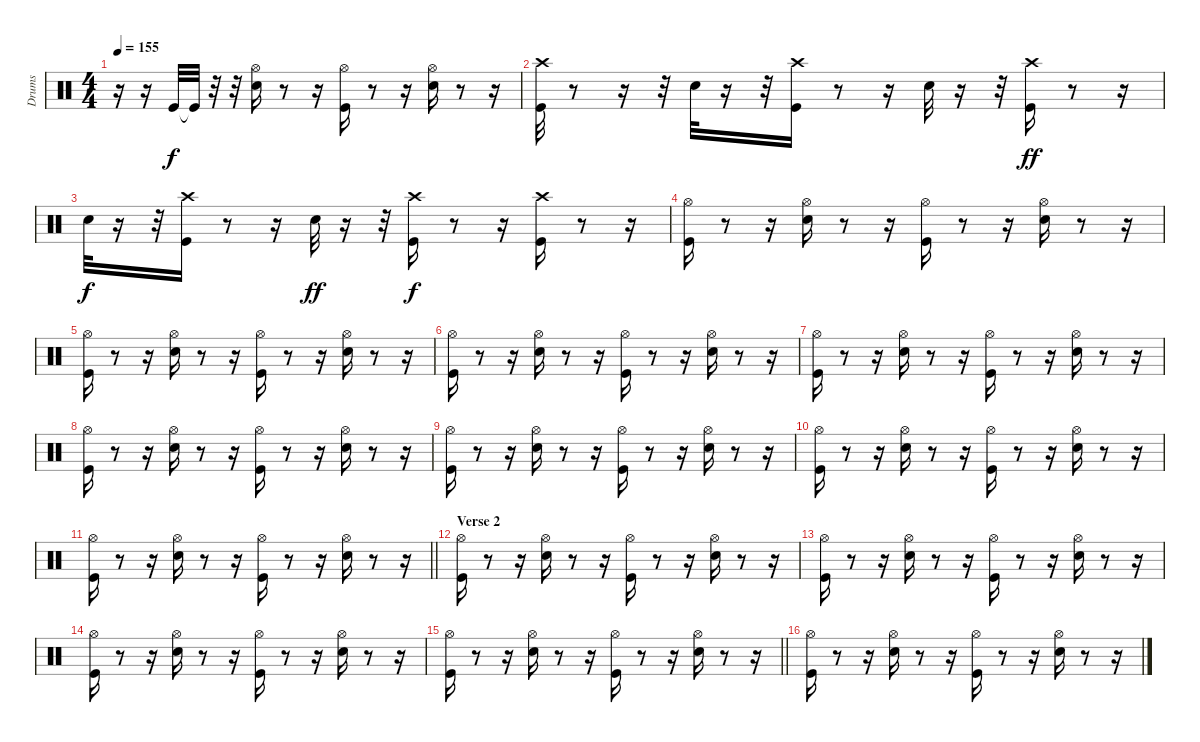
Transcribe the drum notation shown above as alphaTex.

\track ("Drums" "Drums") {instrument percussion}
\staff {score}
\articulation defaults
\ts (4 4)
\tempo 155
\clef neutral
\ks c
r.16{dy f} r.16 "Kick (hit)".32 "Kick (hit)"{t}.32 r.32 r.32 ("Hi-Hat (open)" "Snare (hit) 2").16 r.8 r.16 ("Hi-Hat (open)" "Kick (hit)").16 r.8 r.16 ("Hi-Hat (open)" "Snare (hit) 2").16 r.8 r.16 |
("Kick (hit)" "Crash high (hit)").32 r.8 r.16 r.32 "Snare (hit) 2".32 r.16 r.32 ("Kick (hit)" "Crash high (hit)").16 r.8 r.16 "Snare (hit) 2".32 r.16 r.32 ("Kick (hit)" "Crash high (hit)").16{dy ff} r.8 r.16 |
"Snare (hit) 2".32{dy f} r.16 r.32 ("Kick (hit)" "Crash high (hit)").16 r.8 r.16 "Snare (hit) 2".32{dy ff} r.16 r.32 ("Kick (hit)" "Crash high (hit)").16{dy f} r.8 r.16 ("Kick (hit)" "Crash high (hit)").16 r.8 r.16 |
("Hi-Hat (open)" "Kick (hit)").16 r.8 r.16 ("Hi-Hat (open)" "Snare (hit) 2").16 r.8 r.16 ("Kick (hit)" "Hi-Hat (open)").16 r.8 r.16 ("Snare (hit) 2" "Hi-Hat (open)").16 r.8 r.16 |
("Hi-Hat (open)" "Kick (hit)").16 r.8 r.16 ("Hi-Hat (open)" "Snare (hit) 2").16 r.8 r.16 ("Kick (hit)" "Hi-Hat (open)").16 r.8 r.16 ("Snare (hit) 2" "Hi-Hat (open)").16 r.8 r.16 |
("Hi-Hat (open)" "Kick (hit)").16 r.8 r.16 ("Hi-Hat (open)" "Snare (hit) 2").16 r.8 r.16 ("Kick (hit)" "Hi-Hat (open)").16 r.8 r.16 ("Snare (hit) 2" "Hi-Hat (open)").16 r.8 r.16 |
("Hi-Hat (open)" "Kick (hit)").16 r.8 r.16 ("Hi-Hat (open)" "Snare (hit) 2").16 r.8 r.16 ("Kick (hit)" "Hi-Hat (open)").16 r.8 r.16 ("Snare (hit) 2" "Hi-Hat (open)").16 r.8 r.16 |
("Hi-Hat (open)" "Kick (hit)").16 r.8 r.16 ("Hi-Hat (open)" "Snare (hit) 2").16 r.8 r.16 ("Kick (hit)" "Hi-Hat (open)").16 r.8 r.16 ("Snare (hit) 2" "Hi-Hat (open)").16 r.8 r.16 |
("Hi-Hat (open)" "Kick (hit)").16 r.8 r.16 ("Hi-Hat (open)" "Snare (hit) 2").16 r.8 r.16 ("Kick (hit)" "Hi-Hat (open)").16 r.8 r.16 ("Snare (hit) 2" "Hi-Hat (open)").16 r.8 r.16 |
("Hi-Hat (open)" "Kick (hit)").16 r.8 r.16 ("Hi-Hat (open)" "Snare (hit) 2").16 r.8 r.16 ("Kick (hit)" "Hi-Hat (open)").16 r.8 r.16 ("Snare (hit) 2" "Hi-Hat (open)").16 r.8 r.16 |
\barLineRight lightlight
("Hi-Hat (open)" "Kick (hit)").16 r.8 r.16 ("Hi-Hat (open)" "Snare (hit) 2").16 r.8 r.16 ("Kick (hit)" "Hi-Hat (open)").16 r.8 r.16 ("Snare (hit) 2" "Hi-Hat (open)").16 r.8 r.16 |
\section ("" "Verse 2")
("Hi-Hat (open)" "Kick (hit)").16 r.8 r.16 ("Hi-Hat (open)" "Snare (hit) 2").16 r.8 r.16 ("Kick (hit)" "Hi-Hat (open)").16 r.8 r.16 ("Snare (hit) 2" "Hi-Hat (open)").16 r.8 r.16 |
("Hi-Hat (open)" "Kick (hit)").16 r.8 r.16 ("Hi-Hat (open)" "Snare (hit) 2").16 r.8 r.16 ("Kick (hit)" "Hi-Hat (open)").16 r.8 r.16 ("Snare (hit) 2" "Hi-Hat (open)").16 r.8 r.16 |
("Hi-Hat (open)" "Kick (hit)").16 r.8 r.16 ("Hi-Hat (open)" "Snare (hit) 2").16 r.8 r.16 ("Kick (hit)" "Hi-Hat (open)").16 r.8 r.16 ("Snare (hit) 2" "Hi-Hat (open)").16 r.8 r.16 |
\barLineRight lightlight
("Hi-Hat (open)" "Kick (hit)").16 r.8 r.16 ("Hi-Hat (open)" "Snare (hit) 2").16 r.8 r.16 ("Kick (hit)" "Hi-Hat (open)").16 r.8 r.16 ("Snare (hit) 2" "Hi-Hat (open)").16 r.8 r.16 |
("Hi-Hat (open)" "Kick (hit)").16 r.8 r.16 ("Hi-Hat (open)" "Snare (hit) 2").16 r.8 r.16 ("Kick (hit)" "Hi-Hat (open)").16 r.8 r.16 ("Snare (hit) 2" "Hi-Hat (open)").16 r.8 r.16
